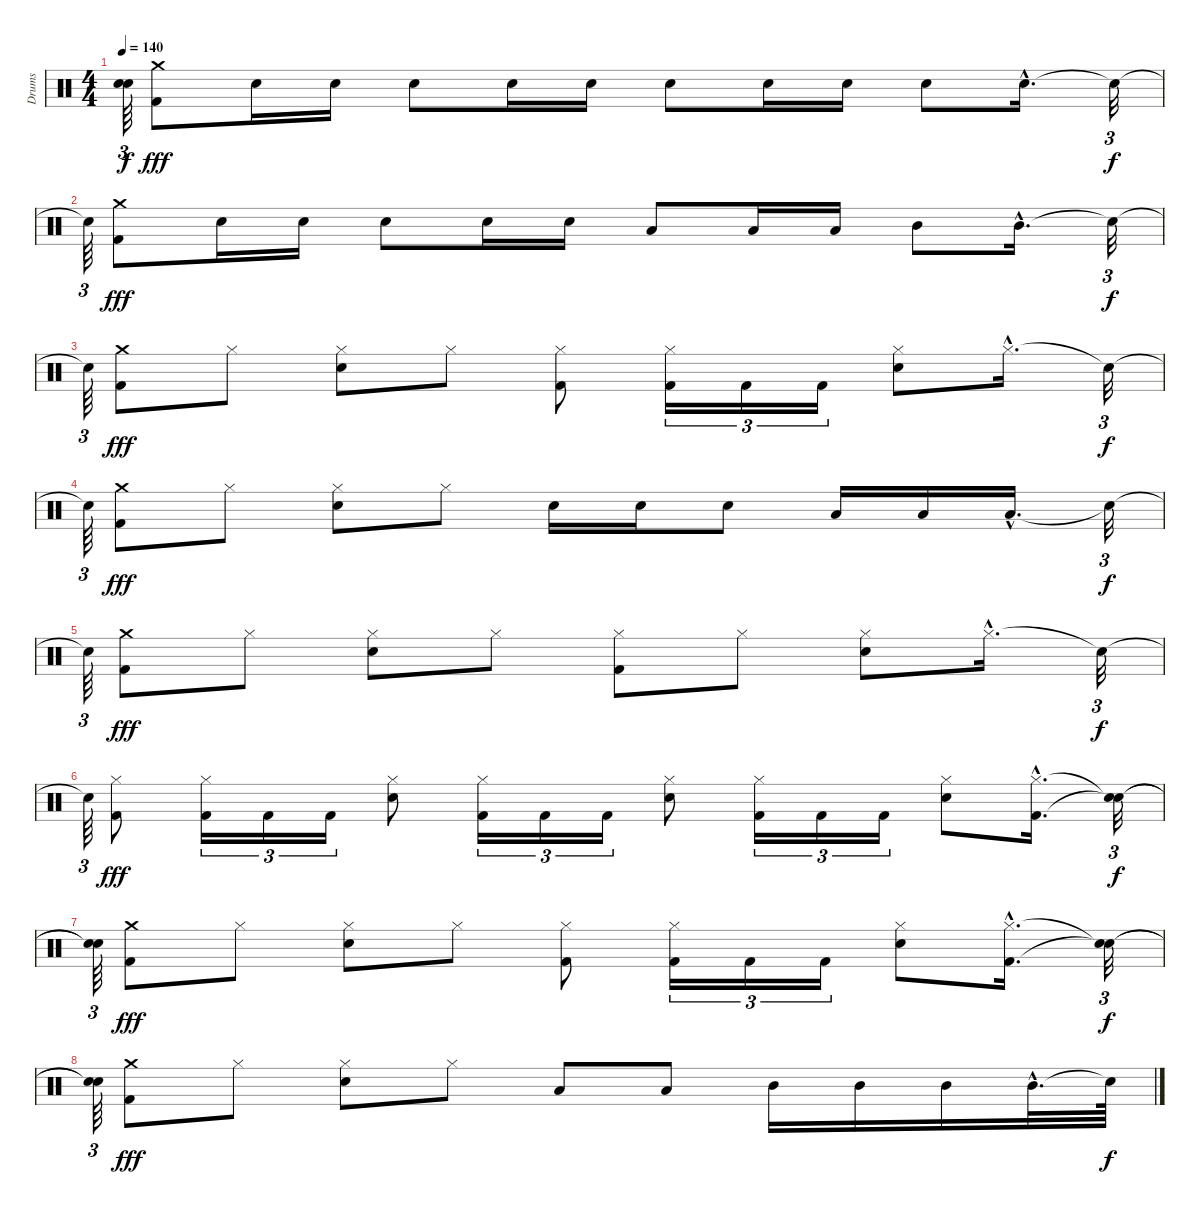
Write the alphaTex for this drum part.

\track ("Drums" "Drums") {instrument percussion}
\staff {score}
\articulation defaults
\ts (4 4)
\tempo 140
\clef neutral
\ks c
("Snare (hit)"{t} "Snare (hit)"{t}).64{tu (3 2) dy f} ("Kick (hit) 2" "Crash medium (hit)").8{dy fff} "Snare (hit) 2".16 "Snare (hit) 2".16 "Snare (hit) 2".8 "Snare (hit) 2".16 "Snare (hit) 2".16 "Snare (hit) 2".8 "Snare (hit) 2".16 "Snare (hit) 2".16 "Snare (hit) 2".8 "Snare (hit) 2"{hac}.16{d} "Snare (hit)"{t}.32{tu (3 2) dy f} |
"Snare (hit)"{t}.64{tu (3 2)} ("Crash medium (hit)" "Kick (hit) 2").8{dy fff} "Snare (hit) 2".16 "Snare (hit) 2".16 "Snare (hit) 2".8 "Snare (hit) 2".16 "Snare (hit) 2".16 "Low Tom (hit)".8 "Low Tom (hit)".16 "Low Tom (hit)".16 "Mid Tom (hit)".8 "Mid Tom (hit)"{hac}.16{d} "Snare (hit)"{t}.32{tu (3 2) dy f} |
"Snare (hit)"{t}.64{tu (3 2)} ("Crash medium (hit)" "Kick (hit) 2").8{dy fff} "Hi-Hat (closed)".8 ("Snare (hit) 2" "Hi-Hat (closed)").8 "Hi-Hat (closed)".8 ("Kick (hit) 2" "Hi-Hat (closed)").8 ("Kick (hit) 2" "Hi-Hat (closed)").16{tu (3 2)} "Kick (hit) 2".16{tu (3 2)} "Kick (hit) 2".16{tu (3 2)} ("Snare (hit) 2" "Hi-Hat (closed)").8 "Hi-Hat (closed)"{hac}.16{d} "Snare (hit)"{t}.32{tu (3 2) dy f} |
"Snare (hit)"{t}.64{tu (3 2)} ("Kick (hit) 2" "Crash medium (hit)").8{dy fff} "Hi-Hat (closed)".8 ("Snare (hit) 2" "Hi-Hat (closed)").8 "Hi-Hat (closed)".8 "Snare (hit) 2".16 "Snare (hit) 2".16 "Snare (hit) 2".8 "Low Tom (hit)".16 "Low Tom (hit)".16 "Low Tom (hit)"{hac}.16{d} "Snare (hit)"{t}.32{tu (3 2) dy f} |
"Snare (hit)"{t}.64{tu (3 2)} ("Crash medium (hit)" "Kick (hit) 2").8{dy fff} "Hi-Hat (closed)".8 ("Snare (hit) 2" "Hi-Hat (closed)").8 "Hi-Hat (closed)".8 ("Hi-Hat (closed)" "Kick (hit) 2").8 "Hi-Hat (closed)".8 ("Snare (hit) 2" "Hi-Hat (closed)").8 "Hi-Hat (closed)"{hac}.16{d} "Snare (hit)"{t}.32{tu (3 2) dy f} |
"Snare (hit)"{t}.64{tu (3 2)} ("Kick (hit) 2" "Hi-Hat (closed)").8{dy fff} ("Kick (hit) 2" "Hi-Hat (closed)").16{tu (3 2)} "Kick (hit) 2".16{tu (3 2)} "Kick (hit) 2".16{tu (3 2)} ("Snare (hit) 2" "Hi-Hat (closed)").8 ("Kick (hit) 2" "Hi-Hat (closed)").16{tu (3 2)} "Kick (hit) 2".16{tu (3 2)} "Kick (hit) 2".16{tu (3 2)} ("Snare (hit) 2" "Hi-Hat (closed)").8 ("Kick (hit) 2" "Hi-Hat (closed)").16{tu (3 2)} "Kick (hit) 2".16{tu (3 2)} "Kick (hit) 2".16{tu (3 2)} ("Snare (hit) 2" "Hi-Hat (closed)").8 ("Kick (hit) 2"{hac} "Hi-Hat (closed)"{hac}).16{d} ("Snare (hit)"{t} "Snare (hit)"{t}).32{tu (3 2) dy f} |
("Snare (hit)"{t} "Snare (hit)"{t}).64{tu (3 2)} ("Crash medium (hit)" "Kick (hit) 2").8{dy fff} "Hi-Hat (closed)".8 ("Snare (hit) 2" "Hi-Hat (closed)").8 "Hi-Hat (closed)".8 ("Hi-Hat (closed)" "Kick (hit) 2").8 ("Hi-Hat (closed)" "Kick (hit) 2").16{tu (3 2)} "Kick (hit) 2".16{tu (3 2)} "Kick (hit) 2".16{tu (3 2)} ("Snare (hit) 2" "Hi-Hat (closed)").8 ("Hi-Hat (closed)"{hac} "Kick (hit) 2"{hac}).16{d} ("Snare (hit)"{t} "Snare (hit)"{t}).32{tu (3 2) dy f} |
("Snare (hit)"{t} "Snare (hit)"{t}).64{tu (3 2)} ("Kick (hit) 2" "Crash medium (hit)").8{dy fff} "Hi-Hat (closed)".8 ("Snare (hit) 2" "Hi-Hat (closed)").8 "Hi-Hat (closed)".8 "Low Tom (hit)".8 "Low Tom (hit)".8 "Mid Tom (hit)".16 "Mid Tom (hit)".16 "Mid Tom (hit)".16 "Mid Tom (hit)"{hac}.32{d} "Snare (hit)"{t}.64{dy f}
